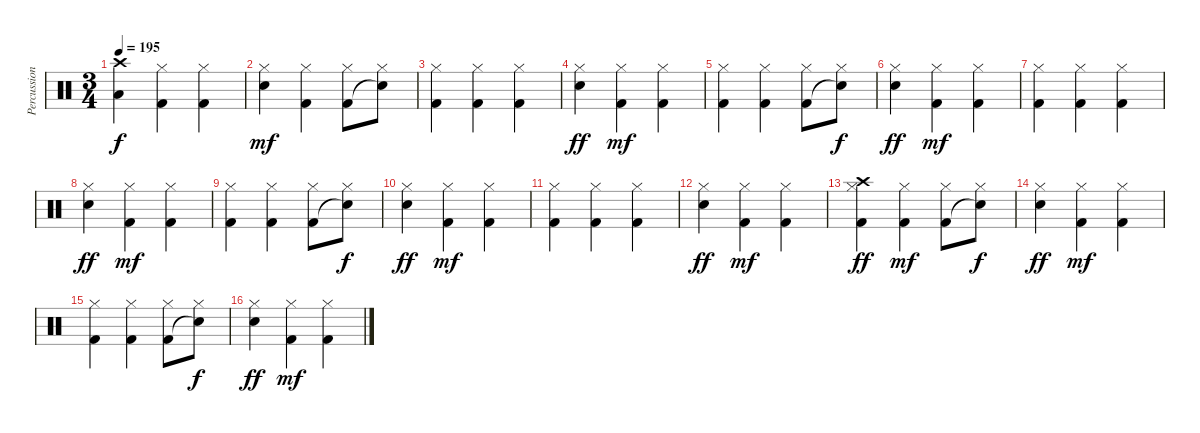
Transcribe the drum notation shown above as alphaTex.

\track ("Percussion" "Percussion") {instrument percussion}
\staff {score}
\articulation defaults
\ts (3 4)
\tempo 195
\clef neutral
\ks c
("Low Floor Tom (hit)" "Crash high (hit)").4{dy f} ("Hi-Hat (closed)" "Kick (hit) 2").4 ("Hi-Hat (closed)" "Kick (hit) 2").4 |
("Hi-Hat (closed)" "Electric Snare (hit)").4{dy mf} ("Hi-Hat (closed)" "Kick (hit) 2").4 ("Hi-Hat (closed)" "Kick (hit) 2").8 ("Hi-Hat (closed)" "Snare (hit)"{t}).8 |
("Hi-Hat (closed)" "Kick (hit) 2").4 ("Hi-Hat (closed)" "Kick (hit) 2").4 ("Hi-Hat (closed)" "Kick (hit) 2").4 |
("Hi-Hat (closed)" "Electric Snare (hit)").4{dy ff} ("Hi-Hat (closed)" "Kick (hit) 2").4{dy mf} ("Hi-Hat (closed)" "Kick (hit) 2").4 |
("Hi-Hat (closed)" "Kick (hit) 2").4 ("Hi-Hat (closed)" "Kick (hit) 2").4 ("Hi-Hat (closed)" "Kick (hit) 2").8 ("Hi-Hat (closed)" "Snare (hit)"{t}).8{dy f} |
("Hi-Hat (closed)" "Electric Snare (hit)").4{dy ff} ("Hi-Hat (closed)" "Kick (hit) 2").4{dy mf} ("Hi-Hat (closed)" "Kick (hit) 2").4 |
("Hi-Hat (closed)" "Kick (hit) 2").4 ("Hi-Hat (closed)" "Kick (hit) 2").4 ("Hi-Hat (closed)" "Kick (hit) 2").4 |
("Hi-Hat (closed)" "Electric Snare (hit)").4{dy ff} ("Hi-Hat (closed)" "Kick (hit) 2").4{dy mf} ("Hi-Hat (closed)" "Kick (hit) 2").4 |
("Hi-Hat (closed)" "Kick (hit) 2").4 ("Hi-Hat (closed)" "Kick (hit) 2").4 ("Hi-Hat (closed)" "Kick (hit) 2").8 ("Hi-Hat (closed)" "Snare (hit)"{t}).8{dy f} |
("Hi-Hat (closed)" "Electric Snare (hit)").4{dy ff} ("Hi-Hat (closed)" "Kick (hit) 2").4{dy mf} ("Hi-Hat (closed)" "Kick (hit) 2").4 |
("Hi-Hat (closed)" "Kick (hit) 2").4 ("Hi-Hat (closed)" "Kick (hit) 2").4 ("Hi-Hat (closed)" "Kick (hit) 2").4 |
("Hi-Hat (closed)" "Electric Snare (hit)").4{dy ff} ("Hi-Hat (closed)" "Kick (hit) 2").4{dy mf} ("Hi-Hat (closed)" "Kick (hit) 2").4 |
("Hi-Hat (closed)" "Kick (hit) 2" "Crash high (hit)").4{dy ff} ("Hi-Hat (closed)" "Kick (hit) 2").4{dy mf} ("Hi-Hat (closed)" "Kick (hit) 2").8 ("Hi-Hat (closed)" "Snare (hit)"{t}).8{dy f} |
("Hi-Hat (closed)" "Electric Snare (hit)").4{dy ff} ("Hi-Hat (closed)" "Kick (hit) 2").4{dy mf} ("Hi-Hat (closed)" "Kick (hit) 2").4 |
("Hi-Hat (closed)" "Kick (hit) 2").4 ("Hi-Hat (closed)" "Kick (hit) 2").4 ("Hi-Hat (closed)" "Kick (hit) 2").8 ("Hi-Hat (closed)" "Snare (hit)"{t}).8{dy f} |
("Hi-Hat (closed)" "Electric Snare (hit)").4{dy ff} ("Hi-Hat (closed)" "Kick (hit) 2").4{dy mf} ("Hi-Hat (closed)" "Kick (hit) 2").4
